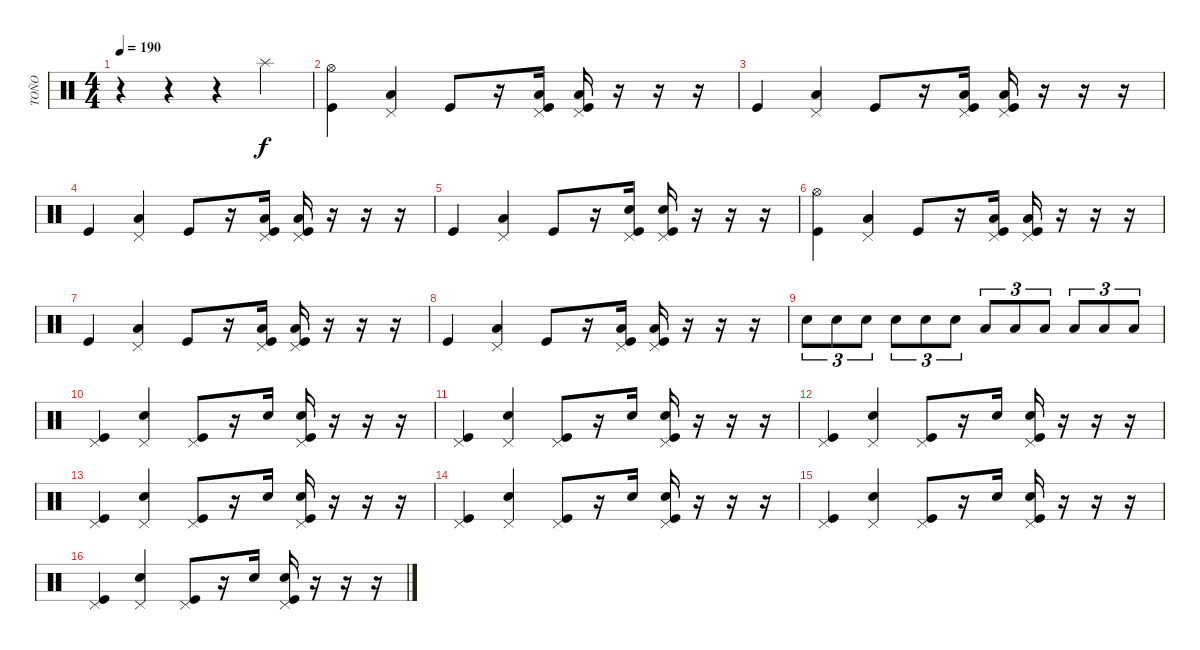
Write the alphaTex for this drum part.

\track ("TOÑO" "TOÑO") {instrument percussion}
\staff {score}
\articulation defaults
\ts (4 4)
\tempo 190
\clef neutral
\ks c
r.4{dy f} r.4 r.4 "Splash (hit)".4 |
("Hi-Hat (open)" "Kick (hit)").4 ("Pedal Hi-Hat (hit)" "Low Tom (hit)").4 "Kick (hit)".8 r.16 ("Pedal Hi-Hat (hit)" "Low Tom (hit)" "Kick (hit)").16 ("Pedal Hi-Hat (hit)" "Low Tom (hit)" "Kick (hit)").16 r.16 r.16 r.16 |
"Kick (hit)".4 ("Pedal Hi-Hat (hit)" "Low Tom (hit)").4 "Kick (hit)".8 r.16 ("Pedal Hi-Hat (hit)" "Low Tom (hit)" "Kick (hit)").16 ("Pedal Hi-Hat (hit)" "Low Tom (hit)" "Kick (hit)").16 r.16 r.16 r.16 |
"Kick (hit)".4 ("Pedal Hi-Hat (hit)" "Low Tom (hit)").4 "Kick (hit)".8 r.16 ("Pedal Hi-Hat (hit)" "Low Tom (hit)" "Kick (hit)").16 ("Pedal Hi-Hat (hit)" "Low Tom (hit)" "Kick (hit)").16 r.16 r.16 r.16 |
"Kick (hit)".4 ("Pedal Hi-Hat (hit)" "Low Tom (hit)").4 "Kick (hit)".8 r.16 ("Pedal Hi-Hat (hit)" "Electric Snare (hit)" "Kick (hit)").16 ("Pedal Hi-Hat (hit)" "Electric Snare (hit)" "Kick (hit)").16 r.16 r.16 r.16 |
("Hi-Hat (open)" "Kick (hit)").4 ("Pedal Hi-Hat (hit)" "Low Tom (hit)").4 "Kick (hit)".8 r.16 ("Pedal Hi-Hat (hit)" "Low Tom (hit)" "Kick (hit)").16 ("Pedal Hi-Hat (hit)" "Low Tom (hit)" "Kick (hit)").16 r.16 r.16 r.16 |
"Kick (hit)".4 ("Pedal Hi-Hat (hit)" "Low Tom (hit)").4 "Kick (hit)".8 r.16 ("Pedal Hi-Hat (hit)" "Low Tom (hit)" "Kick (hit)").16 ("Pedal Hi-Hat (hit)" "Low Tom (hit)" "Kick (hit)").16 r.16 r.16 r.16 |
"Kick (hit)".4 ("Pedal Hi-Hat (hit)" "Low Tom (hit)").4 "Kick (hit)".8 r.16 ("Pedal Hi-Hat (hit)" "Low Tom (hit)" "Kick (hit)").16 ("Pedal Hi-Hat (hit)" "Low Tom (hit)" "Kick (hit)").16 r.16 r.16 r.16 |
"Electric Snare (hit)".8{tu (3 2)} "Electric Snare (hit)".8{tu (3 2)} "Electric Snare (hit)".8{tu (3 2)} "Electric Snare (hit)".8{tu (3 2)} "Electric Snare (hit)".8{tu (3 2)} "Electric Snare (hit)".8{tu (3 2)} "Low Tom (hit)".8{tu (3 2)} "Low Tom (hit)".8{tu (3 2)} "Low Tom (hit)".8{tu (3 2)} "Low Tom (hit)".8{tu (3 2)} "Low Tom (hit)".8{tu (3 2)} "Low Tom (hit)".8{tu (3 2)} |
("Pedal Hi-Hat (hit)" "Kick (hit)").4 ("Pedal Hi-Hat (hit)" "Snare (hit) 2").4 ("Pedal Hi-Hat (hit)" "Kick (hit)").8 r.16 "Snare (hit) 2".16 ("Pedal Hi-Hat (hit)" "Snare (hit) 2" "Kick (hit)").16 r.16 r.16 r.16 |
("Pedal Hi-Hat (hit)" "Kick (hit)").4 ("Pedal Hi-Hat (hit)" "Snare (hit) 2").4 ("Pedal Hi-Hat (hit)" "Kick (hit)").8 r.16 "Snare (hit) 2".16 ("Pedal Hi-Hat (hit)" "Snare (hit) 2" "Kick (hit)").16 r.16 r.16 r.16 |
("Pedal Hi-Hat (hit)" "Kick (hit)").4 ("Pedal Hi-Hat (hit)" "Snare (hit) 2").4 ("Pedal Hi-Hat (hit)" "Kick (hit)").8 r.16 "Snare (hit) 2".16 ("Pedal Hi-Hat (hit)" "Snare (hit) 2" "Kick (hit)").16 r.16 r.16 r.16 |
("Pedal Hi-Hat (hit)" "Kick (hit)").4 ("Pedal Hi-Hat (hit)" "Snare (hit) 2").4 ("Pedal Hi-Hat (hit)" "Kick (hit)").8 r.16 "Snare (hit) 2".16 ("Pedal Hi-Hat (hit)" "Snare (hit) 2" "Kick (hit)").16 r.16 r.16 r.16 |
("Pedal Hi-Hat (hit)" "Kick (hit)").4 ("Pedal Hi-Hat (hit)" "Snare (hit) 2").4 ("Pedal Hi-Hat (hit)" "Kick (hit)").8 r.16 "Snare (hit) 2".16 ("Pedal Hi-Hat (hit)" "Snare (hit) 2" "Kick (hit)").16 r.16 r.16 r.16 |
("Pedal Hi-Hat (hit)" "Kick (hit)").4 ("Pedal Hi-Hat (hit)" "Snare (hit) 2").4 ("Pedal Hi-Hat (hit)" "Kick (hit)").8 r.16 "Snare (hit) 2".16 ("Pedal Hi-Hat (hit)" "Snare (hit) 2" "Kick (hit)").16 r.16 r.16 r.16 |
("Pedal Hi-Hat (hit)" "Kick (hit)").4 ("Pedal Hi-Hat (hit)" "Snare (hit) 2").4 ("Pedal Hi-Hat (hit)" "Kick (hit)").8 r.16 "Snare (hit) 2".16 ("Pedal Hi-Hat (hit)" "Snare (hit) 2" "Kick (hit)").16 r.16 r.16 r.16
